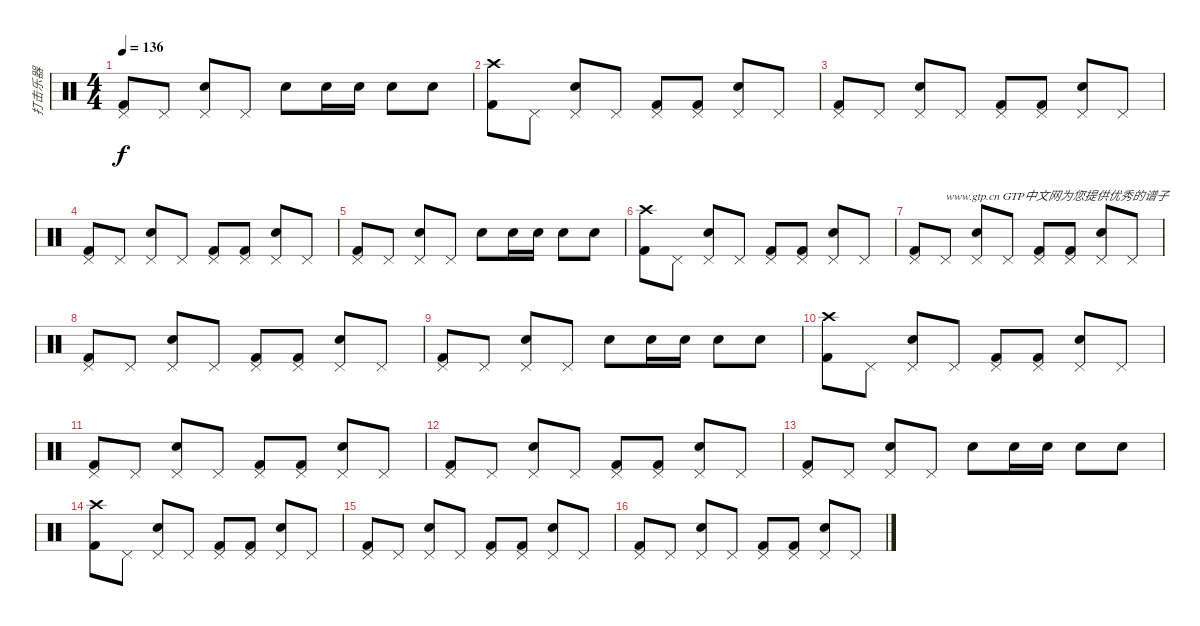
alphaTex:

\track ("打击乐器" "打击乐器") {instrument percussion}
\staff {score}
\articulation defaults
\ts (4 4)
\tempo 136
\clef neutral
\ks c
("Pedal Hi-Hat (hit)" "Kick (hit) 2").8{dy f} "Pedal Hi-Hat (hit)".8 ("Pedal Hi-Hat (hit)" "Snare (hit) 2").8 "Pedal Hi-Hat (hit)".8 "Snare (hit) 2".8 "Snare (hit) 2".16 "Snare (hit) 2".16 "Snare (hit) 2".8 "Snare (hit) 2".8 |
("Crash high (hit)" "Kick (hit) 2").8 "Pedal Hi-Hat (hit)".8 ("Pedal Hi-Hat (hit)" "Snare (hit) 2").8 "Pedal Hi-Hat (hit)".8 ("Pedal Hi-Hat (hit)" "Kick (hit) 2").8 ("Pedal Hi-Hat (hit)" "Kick (hit) 2").8 ("Pedal Hi-Hat (hit)" "Snare (hit) 2").8 "Pedal Hi-Hat (hit)".8 |
("Pedal Hi-Hat (hit)" "Kick (hit) 2").8 "Pedal Hi-Hat (hit)".8 ("Pedal Hi-Hat (hit)" "Snare (hit) 2").8 "Pedal Hi-Hat (hit)".8 ("Pedal Hi-Hat (hit)" "Kick (hit) 2").8 ("Pedal Hi-Hat (hit)" "Kick (hit) 2").8 ("Pedal Hi-Hat (hit)" "Snare (hit) 2").8 "Pedal Hi-Hat (hit)".8 |
("Pedal Hi-Hat (hit)" "Kick (hit) 2").8 "Pedal Hi-Hat (hit)".8 ("Pedal Hi-Hat (hit)" "Snare (hit) 2").8 "Pedal Hi-Hat (hit)".8 ("Pedal Hi-Hat (hit)" "Kick (hit) 2").8 ("Pedal Hi-Hat (hit)" "Kick (hit) 2").8 ("Pedal Hi-Hat (hit)" "Snare (hit) 2").8 "Pedal Hi-Hat (hit)".8 |
("Pedal Hi-Hat (hit)" "Kick (hit) 2").8 "Pedal Hi-Hat (hit)".8 ("Pedal Hi-Hat (hit)" "Snare (hit) 2").8 "Pedal Hi-Hat (hit)".8 "Snare (hit) 2".8 "Snare (hit) 2".16 "Snare (hit) 2".16 "Snare (hit) 2".8 "Snare (hit) 2".8 |
("Crash high (hit)" "Kick (hit) 2").8 "Pedal Hi-Hat (hit)".8 ("Pedal Hi-Hat (hit)" "Snare (hit) 2").8 "Pedal Hi-Hat (hit)".8 ("Pedal Hi-Hat (hit)" "Kick (hit) 2").8 ("Pedal Hi-Hat (hit)" "Kick (hit) 2").8 ("Pedal Hi-Hat (hit)" "Snare (hit) 2").8 "Pedal Hi-Hat (hit)".8 |
("Pedal Hi-Hat (hit)" "Kick (hit) 2").8 "Pedal Hi-Hat (hit)".8{txt "www.gtp.cn GTP中文网为您提供优秀的谱子"} ("Pedal Hi-Hat (hit)" "Snare (hit) 2").8 "Pedal Hi-Hat (hit)".8 ("Pedal Hi-Hat (hit)" "Kick (hit) 2").8 ("Pedal Hi-Hat (hit)" "Kick (hit) 2").8 ("Pedal Hi-Hat (hit)" "Snare (hit) 2").8 "Pedal Hi-Hat (hit)".8 |
("Pedal Hi-Hat (hit)" "Kick (hit) 2").8 "Pedal Hi-Hat (hit)".8 ("Pedal Hi-Hat (hit)" "Snare (hit) 2").8 "Pedal Hi-Hat (hit)".8 ("Pedal Hi-Hat (hit)" "Kick (hit) 2").8 ("Pedal Hi-Hat (hit)" "Kick (hit) 2").8 ("Pedal Hi-Hat (hit)" "Snare (hit) 2").8 "Pedal Hi-Hat (hit)".8 |
("Pedal Hi-Hat (hit)" "Kick (hit) 2").8 "Pedal Hi-Hat (hit)".8 ("Pedal Hi-Hat (hit)" "Snare (hit) 2").8 "Pedal Hi-Hat (hit)".8 "Snare (hit) 2".8 "Snare (hit) 2".16 "Snare (hit) 2".16 "Snare (hit) 2".8 "Snare (hit) 2".8 |
("Crash high (hit)" "Kick (hit) 2").8 "Pedal Hi-Hat (hit)".8 ("Pedal Hi-Hat (hit)" "Snare (hit) 2").8 "Pedal Hi-Hat (hit)".8 ("Pedal Hi-Hat (hit)" "Kick (hit) 2").8 ("Pedal Hi-Hat (hit)" "Kick (hit) 2").8 ("Pedal Hi-Hat (hit)" "Snare (hit) 2").8 "Pedal Hi-Hat (hit)".8 |
("Pedal Hi-Hat (hit)" "Kick (hit) 2").8 "Pedal Hi-Hat (hit)".8 ("Pedal Hi-Hat (hit)" "Snare (hit) 2").8 "Pedal Hi-Hat (hit)".8 ("Pedal Hi-Hat (hit)" "Kick (hit) 2").8 ("Pedal Hi-Hat (hit)" "Kick (hit) 2").8 ("Pedal Hi-Hat (hit)" "Snare (hit) 2").8 "Pedal Hi-Hat (hit)".8 |
("Pedal Hi-Hat (hit)" "Kick (hit) 2").8 "Pedal Hi-Hat (hit)".8 ("Pedal Hi-Hat (hit)" "Snare (hit) 2").8 "Pedal Hi-Hat (hit)".8 ("Pedal Hi-Hat (hit)" "Kick (hit) 2").8 ("Pedal Hi-Hat (hit)" "Kick (hit) 2").8 ("Pedal Hi-Hat (hit)" "Snare (hit) 2").8 "Pedal Hi-Hat (hit)".8 |
("Pedal Hi-Hat (hit)" "Kick (hit) 2").8 "Pedal Hi-Hat (hit)".8 ("Pedal Hi-Hat (hit)" "Snare (hit) 2").8 "Pedal Hi-Hat (hit)".8 "Snare (hit) 2".8 "Snare (hit) 2".16 "Snare (hit) 2".16 "Snare (hit) 2".8 "Snare (hit) 2".8 |
("Crash high (hit)" "Kick (hit) 2").8 "Pedal Hi-Hat (hit)".8 ("Pedal Hi-Hat (hit)" "Snare (hit) 2").8 "Pedal Hi-Hat (hit)".8 ("Pedal Hi-Hat (hit)" "Kick (hit) 2").8 ("Pedal Hi-Hat (hit)" "Kick (hit) 2").8 ("Pedal Hi-Hat (hit)" "Snare (hit) 2").8 "Pedal Hi-Hat (hit)".8 |
("Pedal Hi-Hat (hit)" "Kick (hit) 2").8 "Pedal Hi-Hat (hit)".8 ("Pedal Hi-Hat (hit)" "Snare (hit) 2").8 "Pedal Hi-Hat (hit)".8 ("Pedal Hi-Hat (hit)" "Kick (hit) 2").8 ("Pedal Hi-Hat (hit)" "Kick (hit) 2").8 ("Pedal Hi-Hat (hit)" "Snare (hit) 2").8 "Pedal Hi-Hat (hit)".8 |
("Pedal Hi-Hat (hit)" "Kick (hit) 2").8 "Pedal Hi-Hat (hit)".8 ("Pedal Hi-Hat (hit)" "Snare (hit) 2").8 "Pedal Hi-Hat (hit)".8 ("Pedal Hi-Hat (hit)" "Kick (hit) 2").8 ("Pedal Hi-Hat (hit)" "Kick (hit) 2").8 ("Pedal Hi-Hat (hit)" "Snare (hit) 2").8 "Pedal Hi-Hat (hit)".8
